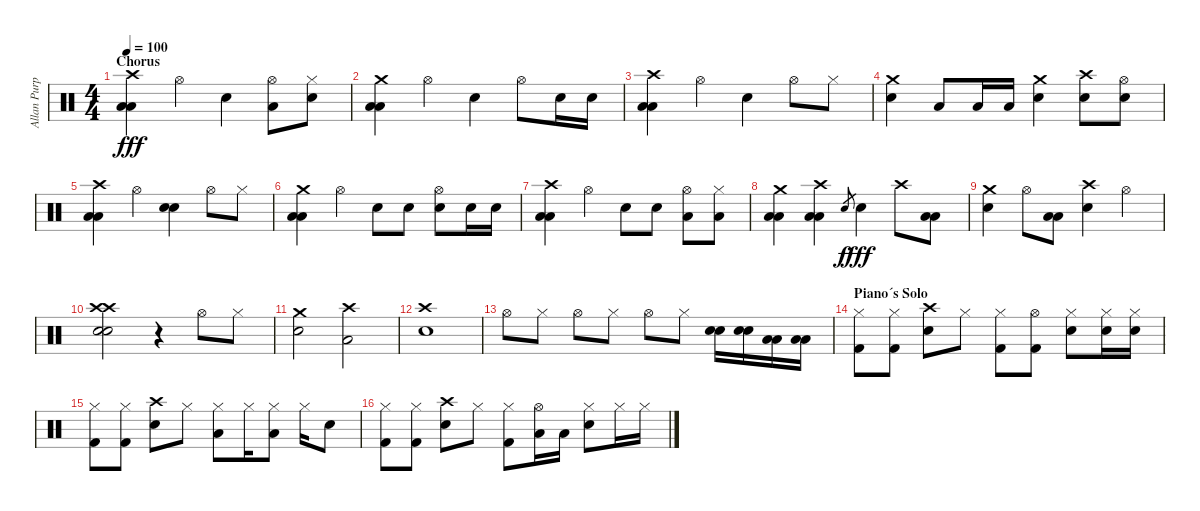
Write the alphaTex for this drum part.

\track ("Allan Purple" "Allan Purp") {instrument percussion}
\staff {score}
\articulation defaults
\ts (4 4)
\section ("" "Chorus")
\tempo 100
\clef neutral
\ks c
("Crash high (hit)" "Low Tom (hit)" "Low Tom (hit)").4{dy fff} "Hi-Hat (open)".4 "Electric Snare (hit)".4 ("Hi-Hat (open)" "Low Tom (hit)").8 ("Hi-Hat (closed)" "Electric Snare (hit)").8 |
("Crash medium (hit)" "Low Tom (hit)" "Low Tom (hit)").4 "Hi-Hat (open)".4 "Electric Snare (hit)".4 "Hi-Hat (open)".8 "Electric Snare (hit)".16 "Electric Snare (hit)".16 |
("Crash high (hit)" "Low Tom (hit)" "Low Tom (hit)").4 "Hi-Hat (open)".4 "Electric Snare (hit)".4 "Hi-Hat (open)".8 "Hi-Hat (closed)".8 |
("Crash medium (hit)" "Electric Snare (hit)").4 "Low Tom (hit)".8 "Low Tom (hit)".16 "Low Tom (hit)".16 ("Crash medium (hit)" "Electric Snare (hit)").4 ("Crash high (hit)" "Electric Snare (hit)").8 ("Hi-Hat (open)" "Electric Snare (hit)").8 |
("Crash high (hit)" "Low Tom (hit)" "Low Tom (hit)").4 "Hi-Hat (open)".4 ("Electric Snare (hit)" "Electric Snare (hit)").4 "Hi-Hat (open)".8 "Hi-Hat (closed)".8 |
("Crash medium (hit)" "Low Tom (hit)" "Low Tom (hit)").4 "Hi-Hat (open)".4 "Electric Snare (hit)".8 "Electric Snare (hit)".8 ("Hi-Hat (open)" "Electric Snare (hit)").8 "Electric Snare (hit)".16 "Electric Snare (hit)".16 |
("Crash high (hit)" "Low Tom (hit)" "Low Tom (hit)").4 "Hi-Hat (open)".4 "Electric Snare (hit)".8 "Electric Snare (hit)".8 ("Hi-Hat (open)" "Low Tom (hit)").8 ("Hi-Hat (closed)" "Low Tom (hit)").8 |
("Crash medium (hit)" "Low Tom (hit)" "Low Tom (hit)").4 ("Crash high (hit)" "Low Tom (hit)" "Low Tom (hit)").4 "Electric Snare (hit)".8{gr dy f} "Electric Snare (hit)".4{dy fff} "Crash high (hit)".8 ("Low Tom (hit)" "Low Tom (hit)").8 |
("Crash medium (hit)" "Electric Snare (hit)").4 "Hi-Hat (open)".8 ("Low Tom (hit)" "Low Tom (hit)").8 ("Crash high (hit)" "Electric Snare (hit)").4 "Hi-Hat (open)".4 |
("Crash high (hit)" "Crash high (hit)" "Electric Snare (hit)" "Electric Snare (hit)").2 r.4 "Hi-Hat (open)".8 "Hi-Hat (closed)".8 |
("Crash medium (hit)" "Electric Snare (hit)").2 ("Crash high (hit)" "Low Tom (hit)").2 |
("Crash high (hit)" "Snare (hit) 2").1 |
"Hi-Hat (open)".8 "Hi-Hat (closed)".8 "Hi-Hat (open)".8 "Hi-Hat (closed)".8 "Hi-Hat (open)".8 "Hi-Hat (closed)".8 ("Electric Snare (hit)" "Electric Snare (hit)").16 ("Electric Snare (hit)" "Electric Snare (hit)").16 ("Low Tom (hit)" "Low Tom (hit)").16 ("Low Tom (hit)" "Low Tom (hit)").16 |
\section ("" "Piano´s Solo")
("Hi-Hat (closed)" "Kick (hit) 2").8 ("Hi-Hat (closed)" "Kick (hit) 2").8 ("Crash high (hit)" "Snare (hit) 2").8 "Hi-Hat (closed)".8 ("Hi-Hat (closed)" "Kick (hit) 2").8 ("Hi-Hat (open)" "Kick (hit) 2").8 ("Hi-Hat (closed)" "Snare (hit) 2").8 ("Hi-Hat (closed)" "Electric Snare (hit)").16 ("Hi-Hat (closed)" "Electric Snare (hit)").16 |
("Hi-Hat (closed)" "Kick (hit) 2").8 ("Hi-Hat (closed)" "Kick (hit) 2").8 ("Crash high (hit)" "Snare (hit) 2").8 "Hi-Hat (closed)".8 ("Hi-Hat (closed)" "Low Tom (hit)").8 "Hi-Hat (closed)".16 ("Hi-Hat (closed)" "Low Tom (hit)").8 "Hi-Hat (closed)".16 "Electric Snare (hit)".8 |
("Hi-Hat (closed)" "Kick (hit) 2").8 ("Hi-Hat (closed)" "Kick (hit) 2").8 ("Crash high (hit)" "Snare (hit) 2").8 "Hi-Hat (closed)".8 ("Hi-Hat (closed)" "Kick (hit) 2").8 ("Hi-Hat (open)" "Low Tom (hit)").16 "Low Tom (hit)".16 ("Hi-Hat (closed)" "Snare (hit) 2").8 "Hi-Hat (closed)".16 "Hi-Hat (closed)".16
